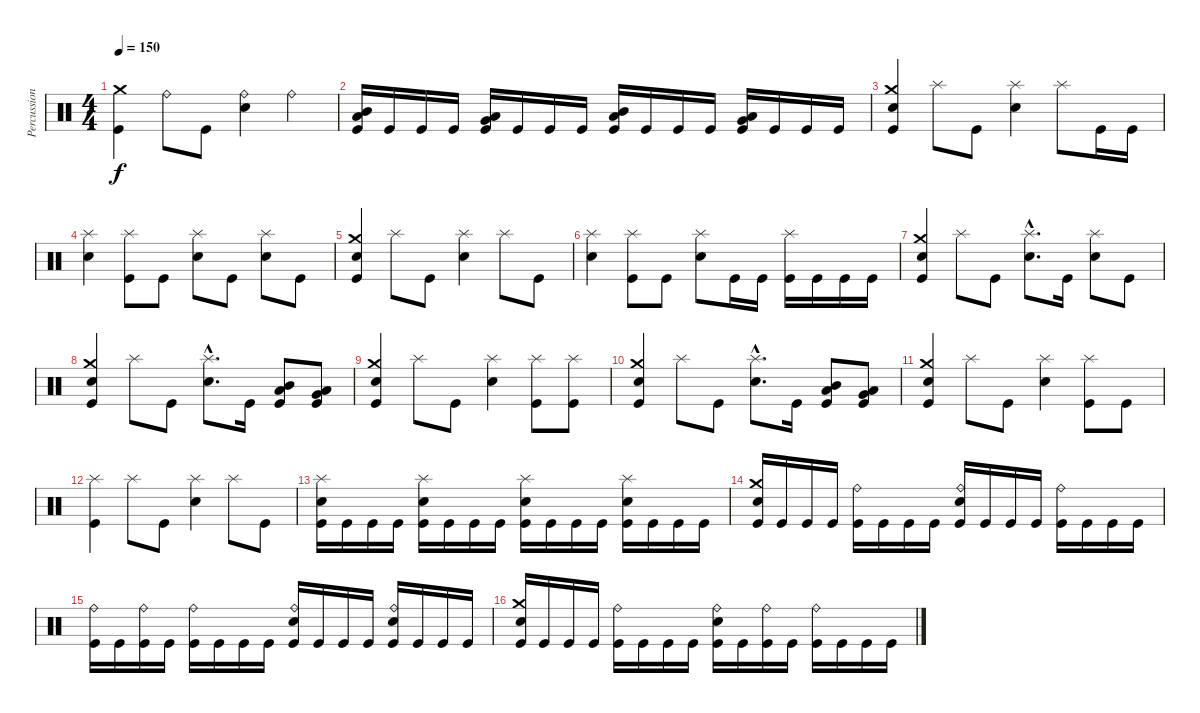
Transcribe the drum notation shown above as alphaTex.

\track ("Percussions" "Percussion") {instrument percussion}
\staff {score}
\articulation defaults
\ts (4 4)
\tempo 150
\clef neutral
\ks c
("Kick (hit)" "Crash medium (hit)").4{dy f} "Ride (bell)".8 "Kick (hit)".8 ("Electric Snare (hit)" "Ride (bell)").4 "Ride (bell)".4 |
("Kick (hit)" "Mid Tom (hit)" "Low Tom (hit)").16 "Kick (hit)".16 "Kick (hit)".16 "Kick (hit)".16 ("Kick (hit)" "Very Low Tom (hit)" "Low Tom (hit)").16 "Kick (hit)".16 "Kick (hit)".16 "Kick (hit)".16 ("Kick (hit)" "Mid Tom (hit)" "Low Tom (hit)").16 "Kick (hit)".16 "Kick (hit)".16 "Kick (hit)".16 ("Kick (hit)" "Very Low Tom (hit)" "Low Tom (hit)").16 "Kick (hit)".16 "Kick (hit)".16 "Kick (hit)".16 |
("Kick (hit)" "Electric Snare (hit)" "Crash medium (hit)").4 "Splash (hit)".8 "Kick (hit)".8 ("Electric Snare (hit)" "Splash (hit)").4 "Splash (hit)".8 "Kick (hit)".16 "Kick (hit)".16 |
("Electric Snare (hit)" "Splash (hit)").4 ("Kick (hit)" "Splash (hit)").8 "Kick (hit)".8 ("Electric Snare (hit)" "Splash (hit)").8 "Kick (hit)".8 ("Electric Snare (hit)" "Splash (hit)").8 "Kick (hit)".8 |
("Kick (hit)" "Electric Snare (hit)" "Crash medium (hit)").4 "Splash (hit)".8 "Kick (hit)".8 ("Electric Snare (hit)" "Splash (hit)").4 "Splash (hit)".8 "Kick (hit)".8 |
("Electric Snare (hit)" "Splash (hit)").4 ("Kick (hit)" "Splash (hit)").8 "Kick (hit)".8 ("Electric Snare (hit)" "Splash (hit)").8 "Kick (hit)".16 "Kick (hit)".16 ("Kick (hit)" "Splash (hit)").16 "Kick (hit)".16 "Kick (hit)".16 "Kick (hit)".16 |
("Kick (hit)" "Electric Snare (hit)" "Crash medium (hit)").4 "Splash (hit)".8 "Kick (hit)".8 ("Electric Snare (hit)"{hac} "Splash (hit)"{hac}).8{d} "Kick (hit)".16 ("Electric Snare (hit)" "Splash (hit)").8 "Kick (hit)".8 |
("Kick (hit)" "Electric Snare (hit)" "Crash medium (hit)").4 "Splash (hit)".8 "Kick (hit)".8 ("Electric Snare (hit)"{hac} "Splash (hit)"{hac}).8{d} "Kick (hit)".16 ("Kick (hit)" "Mid Tom (hit)" "Low Tom (hit)").8 ("Kick (hit)" "Low Tom (hit)" "Very Low Tom (hit)").8 |
("Kick (hit)" "Electric Snare (hit)" "Crash medium (hit)").4 "Splash (hit)".8 "Kick (hit)".8 ("Electric Snare (hit)" "Splash (hit)").4 ("Kick (hit)" "Splash (hit)").8 ("Kick (hit)" "Splash (hit)").8 |
("Kick (hit)" "Electric Snare (hit)" "Crash medium (hit)").4 "Splash (hit)".8 "Kick (hit)".8 ("Electric Snare (hit)"{hac} "Splash (hit)"{hac}).8{d} "Kick (hit)".16 ("Kick (hit)" "Mid Tom (hit)" "Low Tom (hit)").8 ("Kick (hit)" "Very Low Tom (hit)" "Low Floor Tom (hit)").8 |
("Kick (hit)" "Electric Snare (hit)" "Crash medium (hit)").4 "Splash (hit)".8 "Kick (hit)".8 ("Electric Snare (hit)" "Splash (hit)").4 ("Kick (hit)" "Splash (hit)").8 "Kick (hit)".8 |
("Kick (hit)" "Splash (hit)").4 "Splash (hit)".8 "Kick (hit)".8 ("Electric Snare (hit)" "Splash (hit)").4 "Splash (hit)".8 "Kick (hit)".8 |
("Kick (hit)" "Electric Snare (hit)" "Splash (hit)").16 "Kick (hit)".16 "Kick (hit)".16 "Kick (hit)".16 ("Kick (hit)" "Electric Snare (hit)" "Splash (hit)").16 "Kick (hit)".16 "Kick (hit)".16 "Kick (hit)".16 ("Kick (hit)" "Electric Snare (hit)" "Splash (hit)").16 "Kick (hit)".16 "Kick (hit)".16 "Kick (hit)".16 ("Kick (hit)" "Electric Snare (hit)" "Splash (hit)").16 "Kick (hit)".16 "Kick (hit)".16 "Kick (hit)".16 |
("Kick (hit)" "Electric Snare (hit)" "Crash medium (hit)").16 "Kick (hit)".16 "Kick (hit)".16 "Kick (hit)".16 ("Kick (hit)" "Ride (bell)").16 "Kick (hit)".16 "Kick (hit)".16 "Kick (hit)".16 ("Kick (hit)" "Electric Snare (hit)" "Ride (bell)").16 "Kick (hit)".16 "Kick (hit)".16 "Kick (hit)".16 ("Kick (hit)" "Ride (bell)").16 "Kick (hit)".16 "Kick (hit)".16 "Kick (hit)".16 |
("Kick (hit)" "Ride (bell)").16 "Kick (hit)".16 ("Kick (hit)" "Ride (bell)").16 "Kick (hit)".16 ("Kick (hit)" "Ride (bell)").16 "Kick (hit)".16 "Kick (hit)".16 "Kick (hit)".16 ("Kick (hit)" "Electric Snare (hit)" "Ride (bell)").16 "Kick (hit)".16 "Kick (hit)".16 "Kick (hit)".16 ("Kick (hit)" "Electric Snare (hit)" "Ride (bell)").16 "Kick (hit)".16 "Kick (hit)".16 "Kick (hit)".16 |
("Kick (hit)" "Electric Snare (hit)" "Crash medium (hit)").16 "Kick (hit)".16 "Kick (hit)".16 "Kick (hit)".16 ("Kick (hit)" "Ride (bell)").16 "Kick (hit)".16 "Kick (hit)".16 "Kick (hit)".16 ("Kick (hit)" "Electric Snare (hit)" "Ride (bell)").16 "Kick (hit)".16 ("Kick (hit)" "Ride (bell)").16 "Kick (hit)".16 ("Kick (hit)" "Ride (bell)").16 "Kick (hit)".16 "Kick (hit)".16 "Kick (hit)".16
